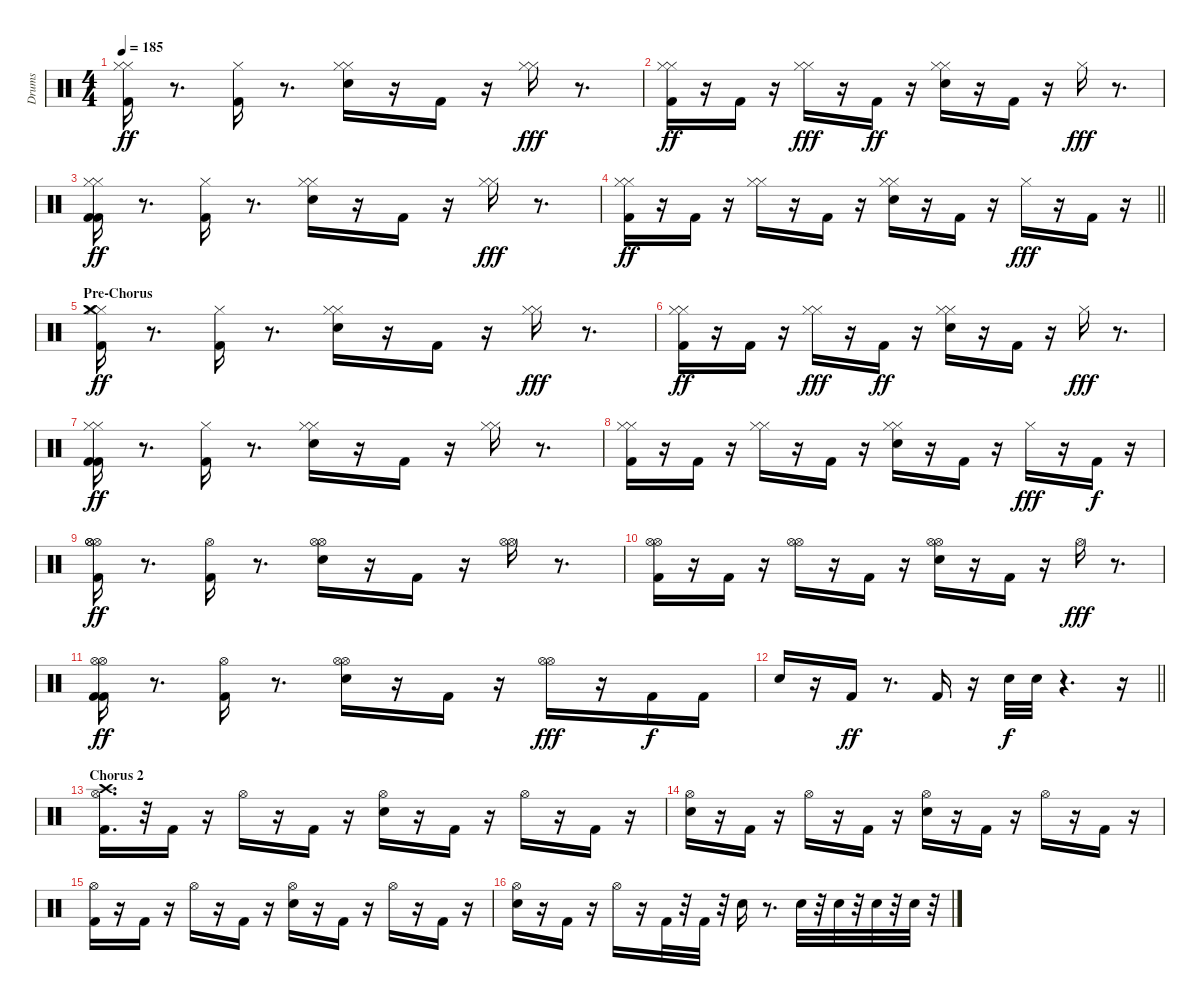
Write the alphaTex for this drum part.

\track ("Drums" "Drums") {instrument percussion}
\staff {score}
\articulation defaults
\ts (4 4)
\tempo 185
\clef neutral
\ks c
("Hi-Hat (closed)" "Kick (hit) 2" "Hi-Hat (closed)").16{dy ff} r.8{d} ("Kick (hit) 2" "Hi-Hat (closed)").16 r.8{d} ("Hi-Hat (closed)" "Electric Snare (hit)" "Hi-Hat (closed)").16 r.16 "Kick (hit) 2".16 r.16 ("Hi-Hat (closed)" "Hi-Hat (closed)").16{dy fff} r.8{d} |
("Hi-Hat (closed)" "Kick (hit) 2" "Hi-Hat (closed)").16{dy ff} r.16 "Kick (hit) 2".16 r.16 ("Hi-Hat (closed)" "Hi-Hat (closed)").16{dy fff} r.16 "Kick (hit) 2".16{dy ff} r.16 ("Hi-Hat (closed)" "Electric Snare (hit)" "Hi-Hat (closed)").16 r.16 "Kick (hit) 2".16 r.16 "Hi-Hat (closed)".16{dy fff} r.8{d} |
("Hi-Hat (closed)" "Hi-Hat (closed)" "Kick (hit) 2" "Kick (hit) 2").16{dy ff} r.8{d} ("Hi-Hat (closed)" "Kick (hit) 2").16 r.8{d} ("Hi-Hat (closed)" "Electric Snare (hit)" "Hi-Hat (closed)").16 r.16 "Kick (hit) 2".16 r.16 ("Hi-Hat (closed)" "Hi-Hat (closed)").16{dy fff} r.8{d} |
\barLineRight lightlight
("Hi-Hat (closed)" "Kick (hit) 2" "Hi-Hat (closed)").16{dy ff} r.16 "Kick (hit) 2".16 r.16 ("Hi-Hat (closed)" "Hi-Hat (closed)").16 r.16 "Kick (hit) 2".16 r.16 ("Hi-Hat (closed)" "Electric Snare (hit)" "Hi-Hat (closed)").16 r.16 "Kick (hit) 2".16 r.16 "Hi-Hat (closed)".16{dy fff} r.16 "Kick (hit) 2".16 r.16 |
\section ("" "Pre-Chorus")
("Hi-Hat (closed)" "Kick (hit) 2" "Crash medium (hit)" "Hi-Hat (closed)").16{dy ff} r.8{d} ("Kick (hit) 2" "Hi-Hat (closed)").16 r.8{d} ("Hi-Hat (closed)" "Electric Snare (hit)" "Hi-Hat (closed)").16 r.16 "Kick (hit) 2".16 r.16 ("Hi-Hat (closed)" "Hi-Hat (closed)").16{dy fff} r.8{d} |
("Hi-Hat (closed)" "Kick (hit) 2" "Hi-Hat (closed)").16{dy ff} r.16 "Kick (hit) 2".16 r.16 ("Hi-Hat (closed)" "Hi-Hat (closed)").16{dy fff} r.16 "Kick (hit) 2".16{dy ff} r.16 ("Hi-Hat (closed)" "Electric Snare (hit)" "Hi-Hat (closed)").16 r.16 "Kick (hit) 2".16 r.16 "Hi-Hat (closed)".16{dy fff} r.8{d} |
("Kick (hit) 2" "Kick (hit) 2" "Hi-Hat (closed)" "Hi-Hat (closed)").16{dy ff} r.8{d} ("Kick (hit) 2" "Hi-Hat (closed)").16 r.8{d} ("Hi-Hat (closed)" "Electric Snare (hit)" "Hi-Hat (closed)").16 r.16 "Kick (hit) 2".16 r.16 ("Hi-Hat (closed)" "Hi-Hat (closed)").16 r.8{d} |
("Hi-Hat (closed)" "Kick (hit) 2" "Hi-Hat (closed)").16 r.16 "Kick (hit) 2".16 r.16 ("Hi-Hat (closed)" "Hi-Hat (closed)").16 r.16 "Kick (hit) 2".16 r.16 ("Hi-Hat (closed)" "Electric Snare (hit)" "Hi-Hat (closed)").16 r.16 "Kick (hit) 2".16 r.16 "Hi-Hat (closed)".16{dy fff} r.16 "Kick (hit) 2".16{dy f} r.16 |
("Kick (hit) 2" "Hi-Hat (open)" "Hi-Hat (open)" "Hi-Hat (open)").16{dy ff} r.8{d} ("Hi-Hat (open)" "Kick (hit) 2").16 r.8{d} ("Electric Snare (hit)" "Hi-Hat (open)" "Hi-Hat (open)").16 r.16 "Kick (hit) 2".16 r.16 ("Hi-Hat (open)" "Hi-Hat (open)").16 r.8{d} |
("Kick (hit) 2" "Hi-Hat (open)" "Hi-Hat (open)").16 r.16 "Kick (hit) 2".16 r.16 ("Hi-Hat (open)" "Hi-Hat (open)").16 r.16 "Kick (hit) 2".16 r.16 ("Hi-Hat (open)" "Hi-Hat (open)" "Electric Snare (hit)").16 r.16 "Kick (hit) 2".16 r.16 "Hi-Hat (open)".16{dy fff} r.8{d} |
("Kick (hit) 2" "Kick (hit) 2" "Hi-Hat (open)" "Hi-Hat (open)").16{dy ff} r.8{d} ("Kick (hit) 2" "Hi-Hat (open)").16 r.8{d} ("Electric Snare (hit)" "Hi-Hat (open)" "Hi-Hat (open)").16 r.16 "Kick (hit) 2".16 r.16 ("Hi-Hat (open)" "Hi-Hat (open)").16{dy fff} r.16 "Kick (hit) 2".16{dy f} "Kick (hit) 2".16 |
\barLineRight lightlight "Electric Snare (hit)".16
r.16 "Kick (hit) 2".16{dy ff} r.8{d} "Kick (hit) 2".16 r.16 "Electric Snare (hit)".32{dy f} "Electric Snare (hit)".32 r.4{d} r.16 |
\section ("" "Chorus 2")
("Hi-Hat (open)" "Kick (hit) 2" "Crash high (hit)").16{d} r.32 "Kick (hit) 2".16 r.16 "Hi-Hat (open)".16 r.16 "Kick (hit) 2".16 r.16 ("Hi-Hat (open)" "Electric Snare (hit)").16 r.16 "Kick (hit) 2".16 r.16 "Hi-Hat (open)".16 r.16 "Kick (hit) 2".16 r.16 |
("Electric Snare (hit)" "Hi-Hat (open)").16 r.16 "Kick (hit) 2".16 r.16 "Hi-Hat (open)".16 r.16 "Kick (hit) 2".16 r.16 ("Electric Snare (hit)" "Hi-Hat (open)").16 r.16 "Kick (hit) 2".16 r.16 "Hi-Hat (open)".16 r.16 "Kick (hit) 2".16 r.16 |
("Hi-Hat (open)" "Kick (hit) 2").16 r.16 "Kick (hit) 2".16 r.16 "Hi-Hat (open)".16 r.16 "Kick (hit) 2".16 r.16 ("Hi-Hat (open)" "Electric Snare (hit)").16 r.16 "Kick (hit) 2".16 r.16 "Hi-Hat (open)".16 r.16 "Kick (hit) 2".16 r.16 |
("Electric Snare (hit)" "Hi-Hat (open)").16 r.16 "Kick (hit) 2".16 r.16 "Hi-Hat (open)".16 r.16 "Kick (hit) 2".32 r.32 "Kick (hit) 2".32 r.32 "Electric Snare (hit)".16 r.8{d} "Electric Snare (hit)".32 r.32 "Electric Snare (hit)".32 r.32 "Electric Snare (hit)".32 r.32 "Electric Snare (hit)".32 r.32
